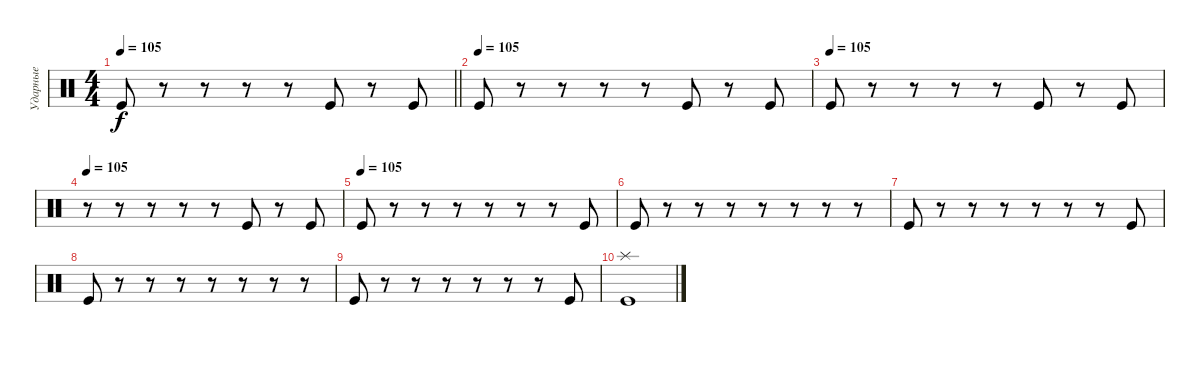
\track ("Ударные" "Ударные") {instrument percussion}
\staff {score}
\articulation defaults
\ts (4 4)
\tempo 105
\clef neutral
\barLineRight lightlight
\ks c "Kick (hit)".8{dy f}
r.8 r.8 r.8 r.8 "Kick (hit)".8 r.8 "Kick (hit)".8 |
\tempo (105)
"Kick (hit)".8 r.8 r.8 r.8 r.8 "Kick (hit)".8 r.8 "Kick (hit)".8 |
\tempo (105)
"Kick (hit)".8 r.8 r.8 r.8 r.8 "Kick (hit)".8 r.8 "Kick (hit)".8 |
\tempo 105
r.8 r.8 r.8 r.8 r.8 "Kick (hit)".8 r.8 "Kick (hit)".8 |
\tempo (105)
"Kick (hit)".8 r.8 r.8 r.8 r.8 r.8 r.8 "Kick (hit)".8 |
"Kick (hit)".8 r.8 r.8 r.8 r.8 r.8 r.8 r.8 |
"Kick (hit)".8 r.8 r.8 r.8 r.8 r.8 r.8 "Kick (hit)".8 |
"Kick (hit)".8 r.8 r.8 r.8 r.8 r.8 r.8 r.8 |
"Kick (hit)".8 r.8 r.8 r.8 r.8 r.8 r.8 "Kick (hit)".8 |
("Kick (hit)" "Splash (hit)").1
